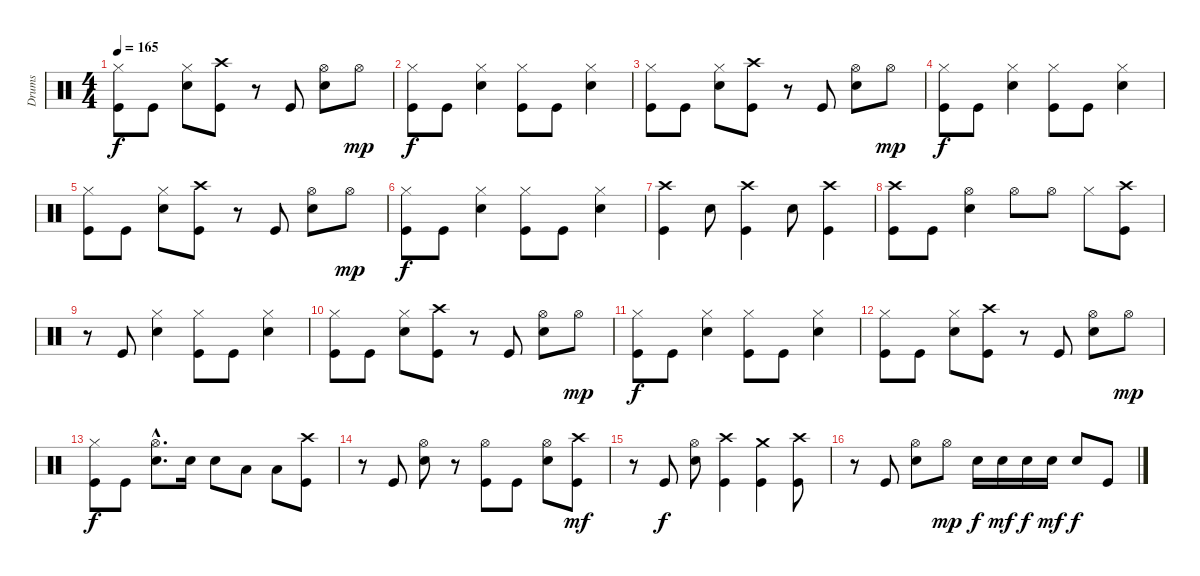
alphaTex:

\track ("Drums" "Drums") {instrument percussion}
\staff {score}
\articulation defaults
\ts (4 4)
\tempo 165
\clef neutral
\ks c
("Hi-Hat (closed)" "Kick (hit)").8{dy f} "Kick (hit)".8 ("Hi-Hat (closed)" "Snare (hit) 2").8 ("Crash high (hit)" "Kick (hit)").8 r.8 "Kick (hit)".8 ("Hi-Hat (open)" "Snare (hit) 2").8 "Hi-Hat (open)".8{dy mp} |
("Hi-Hat (closed)" "Kick (hit)").8{dy f} "Kick (hit)".8 ("Hi-Hat (closed)" "Snare (hit) 2").4 ("Hi-Hat (closed)" "Kick (hit)").8 "Kick (hit)".8 ("Hi-Hat (closed)" "Snare (hit) 2").4 |
("Hi-Hat (closed)" "Kick (hit)").8 "Kick (hit)".8 ("Hi-Hat (closed)" "Snare (hit) 2").8 ("Crash high (hit)" "Kick (hit)").8 r.8 "Kick (hit)".8 ("Hi-Hat (open)" "Snare (hit) 2").8 "Hi-Hat (open)".8{dy mp} |
("Hi-Hat (closed)" "Kick (hit)").8{dy f} "Kick (hit)".8 ("Hi-Hat (closed)" "Snare (hit) 2").4 ("Hi-Hat (closed)" "Kick (hit)").8 "Kick (hit)".8 ("Hi-Hat (closed)" "Snare (hit) 2").4 |
("Hi-Hat (closed)" "Kick (hit)").8 "Kick (hit)".8 ("Hi-Hat (closed)" "Snare (hit) 2").8 ("Crash high (hit)" "Kick (hit)").8 r.8 "Kick (hit)".8 ("Hi-Hat (open)" "Snare (hit) 2").8 "Hi-Hat (open)".8{dy mp} |
("Hi-Hat (closed)" "Kick (hit)").8{dy f} "Kick (hit)".8 ("Hi-Hat (closed)" "Snare (hit) 2").4 ("Hi-Hat (closed)" "Kick (hit)").8 "Kick (hit)".8 ("Hi-Hat (closed)" "Snare (hit) 2").4 |
("Crash high (hit)" "Kick (hit)").4 "Snare (hit) 2".8 ("Crash high (hit)" "Kick (hit)").4 "Snare (hit) 2".8 ("Crash high (hit)" "Kick (hit)").4 |
("Crash high (hit)" "Kick (hit)").8 "Kick (hit)".8 ("Hi-Hat (open)" "Snare (hit) 2").4 "Hi-Hat (open)".8 "Hi-Hat (open)".8 "Hi-Hat (closed)".8 ("Crash high (hit)" "Kick (hit)").8 |
r.8 "Kick (hit)".8 ("Hi-Hat (closed)" "Snare (hit) 2").4 ("Hi-Hat (closed)" "Kick (hit)").8 "Kick (hit)".8 ("Hi-Hat (closed)" "Snare (hit) 2").4 |
("Hi-Hat (closed)" "Kick (hit)").8 "Kick (hit)".8 ("Hi-Hat (closed)" "Snare (hit) 2").8 ("Crash high (hit)" "Kick (hit)").8 r.8 "Kick (hit)".8 ("Hi-Hat (open)" "Snare (hit) 2").8 "Hi-Hat (open)".8{dy mp} |
("Hi-Hat (closed)" "Kick (hit)").8{dy f} "Kick (hit)".8 ("Hi-Hat (closed)" "Snare (hit) 2").4 ("Hi-Hat (closed)" "Kick (hit)").8 "Kick (hit)".8 ("Hi-Hat (closed)" "Snare (hit) 2").4 |
("Hi-Hat (closed)" "Kick (hit)").8 "Kick (hit)".8 ("Hi-Hat (closed)" "Snare (hit) 2").8 ("Crash high (hit)" "Kick (hit)").8 r.8 "Kick (hit)".8 ("Hi-Hat (open)" "Snare (hit) 2").8 "Hi-Hat (open)".8{dy mp} |
("Hi-Hat (closed)" "Kick (hit)").8{dy f} "Kick (hit)".8 ("Hi-Hat (open)"{hac} "Snare (hit) 2"{hac}).8{d} "Snare (hit) 2".16 "Snare (hit) 2".8 "Low Tom (hit)".8 "Low Tom (hit)".8 ("Crash high (hit)" "Kick (hit)").8 |
r.8 "Kick (hit)".8 ("Hi-Hat (open)" "Snare (hit) 2").8 r.8 ("Hi-Hat (open)" "Kick (hit)").8 "Kick (hit)".8 ("Hi-Hat (open)" "Snare (hit) 2").8 ("Crash high (hit)" "Kick (hit)").8{dy mf} |
r.8 "Kick (hit)".8{dy f} ("Hi-Hat (open)" "Snare (hit) 2").8 ("Crash high (hit)" "Kick (hit)").4 ("Crash medium (hit)" "Kick (hit)").4 ("Crash high (hit)" "Kick (hit)").8 |
r.8 "Kick (hit)".8 ("Hi-Hat (open)" "Snare (hit) 2").8 "Hi-Hat (open)".8{dy mp} "Snare (hit) 2".16{dy f} "Snare (hit) 2".16{dy mf} "Snare (hit) 2".16{dy f} "Snare (hit) 2".16{dy mf} "Snare (hit) 2".8{dy f} "Kick (hit)".8
